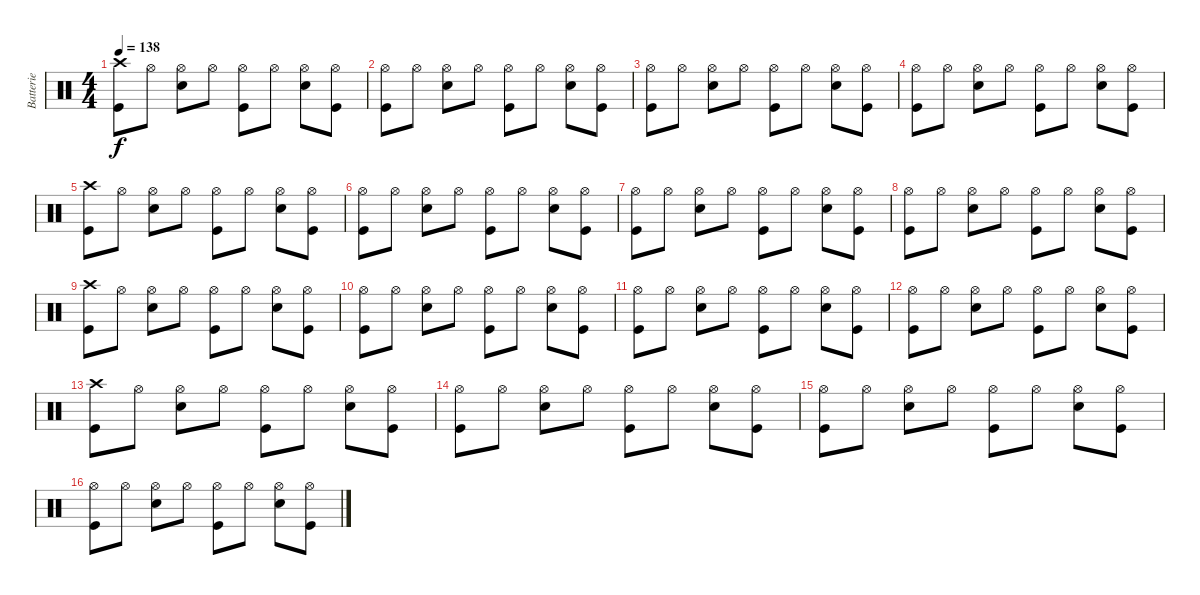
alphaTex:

\track ("Batterie" "Batterie") {instrument percussion}
\staff {score}
\articulation defaults
\ts (4 4)
\tempo 138
\clef neutral
\ks c
("Crash high (hit)" "Kick (hit)").8{dy f} "Hi-Hat (open)".8 ("Hi-Hat (open)" "Snare (hit) 2").8 "Hi-Hat (open)".8 ("Hi-Hat (open)" "Kick (hit)").8 "Hi-Hat (open)".8 ("Hi-Hat (open)" "Snare (hit) 2").8 ("Hi-Hat (open)" "Kick (hit)").8 |
("Hi-Hat (open)" "Kick (hit)").8 "Hi-Hat (open)".8 ("Hi-Hat (open)" "Snare (hit) 2").8 "Hi-Hat (open)".8 ("Hi-Hat (open)" "Kick (hit)").8 "Hi-Hat (open)".8 ("Hi-Hat (open)" "Snare (hit) 2").8 ("Hi-Hat (open)" "Kick (hit)").8 |
("Hi-Hat (open)" "Kick (hit)").8 "Hi-Hat (open)".8 ("Hi-Hat (open)" "Snare (hit) 2").8 "Hi-Hat (open)".8 ("Hi-Hat (open)" "Kick (hit)").8 "Hi-Hat (open)".8 ("Hi-Hat (open)" "Snare (hit) 2").8 ("Hi-Hat (open)" "Kick (hit)").8 |
("Hi-Hat (open)" "Kick (hit)").8 "Hi-Hat (open)".8 ("Hi-Hat (open)" "Snare (hit) 2").8 "Hi-Hat (open)".8 ("Hi-Hat (open)" "Kick (hit)").8 "Hi-Hat (open)".8 ("Hi-Hat (open)" "Snare (hit) 2").8 ("Hi-Hat (open)" "Kick (hit)").8 |
("Crash high (hit)" "Kick (hit)").8 "Hi-Hat (open)".8 ("Hi-Hat (open)" "Snare (hit) 2").8 "Hi-Hat (open)".8 ("Hi-Hat (open)" "Kick (hit)").8 "Hi-Hat (open)".8 ("Hi-Hat (open)" "Snare (hit) 2").8 ("Hi-Hat (open)" "Kick (hit)").8 |
("Hi-Hat (open)" "Kick (hit)").8 "Hi-Hat (open)".8 ("Hi-Hat (open)" "Snare (hit) 2").8 "Hi-Hat (open)".8 ("Hi-Hat (open)" "Kick (hit)").8 "Hi-Hat (open)".8 ("Hi-Hat (open)" "Snare (hit) 2").8 ("Hi-Hat (open)" "Kick (hit)").8 |
("Hi-Hat (open)" "Kick (hit)").8 "Hi-Hat (open)".8 ("Hi-Hat (open)" "Snare (hit) 2").8 "Hi-Hat (open)".8 ("Hi-Hat (open)" "Kick (hit)").8 "Hi-Hat (open)".8 ("Hi-Hat (open)" "Snare (hit) 2").8 ("Hi-Hat (open)" "Kick (hit)").8 |
("Hi-Hat (open)" "Kick (hit)").8 "Hi-Hat (open)".8 ("Hi-Hat (open)" "Snare (hit) 2").8 "Hi-Hat (open)".8 ("Hi-Hat (open)" "Kick (hit)").8 "Hi-Hat (open)".8 ("Hi-Hat (open)" "Snare (hit) 2").8 ("Hi-Hat (open)" "Kick (hit)").8 |
("Crash high (hit)" "Kick (hit)").8 "Hi-Hat (open)".8 ("Hi-Hat (open)" "Snare (hit) 2").8 "Hi-Hat (open)".8 ("Hi-Hat (open)" "Kick (hit)").8 "Hi-Hat (open)".8 ("Hi-Hat (open)" "Snare (hit) 2").8 ("Hi-Hat (open)" "Kick (hit)").8 |
("Hi-Hat (open)" "Kick (hit)").8 "Hi-Hat (open)".8 ("Hi-Hat (open)" "Snare (hit) 2").8 "Hi-Hat (open)".8 ("Hi-Hat (open)" "Kick (hit)").8 "Hi-Hat (open)".8 ("Hi-Hat (open)" "Snare (hit) 2").8 ("Hi-Hat (open)" "Kick (hit)").8 |
("Hi-Hat (open)" "Kick (hit)").8 "Hi-Hat (open)".8 ("Hi-Hat (open)" "Snare (hit) 2").8 "Hi-Hat (open)".8 ("Hi-Hat (open)" "Kick (hit)").8 "Hi-Hat (open)".8 ("Hi-Hat (open)" "Snare (hit) 2").8 ("Hi-Hat (open)" "Kick (hit)").8 |
("Hi-Hat (open)" "Kick (hit)").8 "Hi-Hat (open)".8 ("Hi-Hat (open)" "Snare (hit) 2").8 "Hi-Hat (open)".8 ("Hi-Hat (open)" "Kick (hit)").8 "Hi-Hat (open)".8 ("Hi-Hat (open)" "Snare (hit) 2").8 ("Hi-Hat (open)" "Kick (hit)").8 |
("Crash high (hit)" "Kick (hit)").8 "Hi-Hat (open)".8 ("Hi-Hat (open)" "Snare (hit) 2").8 "Hi-Hat (open)".8 ("Hi-Hat (open)" "Kick (hit)").8 "Hi-Hat (open)".8 ("Hi-Hat (open)" "Snare (hit) 2").8 ("Hi-Hat (open)" "Kick (hit)").8 |
("Hi-Hat (open)" "Kick (hit)").8 "Hi-Hat (open)".8 ("Hi-Hat (open)" "Snare (hit) 2").8 "Hi-Hat (open)".8 ("Hi-Hat (open)" "Kick (hit)").8 "Hi-Hat (open)".8 ("Hi-Hat (open)" "Snare (hit) 2").8 ("Hi-Hat (open)" "Kick (hit)").8 |
("Hi-Hat (open)" "Kick (hit)").8 "Hi-Hat (open)".8 ("Hi-Hat (open)" "Snare (hit) 2").8 "Hi-Hat (open)".8 ("Hi-Hat (open)" "Kick (hit)").8 "Hi-Hat (open)".8 ("Hi-Hat (open)" "Snare (hit) 2").8 ("Hi-Hat (open)" "Kick (hit)").8 |
("Hi-Hat (open)" "Kick (hit)").8 "Hi-Hat (open)".8 ("Hi-Hat (open)" "Snare (hit) 2").8 "Hi-Hat (open)".8 ("Hi-Hat (open)" "Kick (hit)").8 "Hi-Hat (open)".8 ("Hi-Hat (open)" "Snare (hit) 2").8 ("Hi-Hat (open)" "Kick (hit)").8
